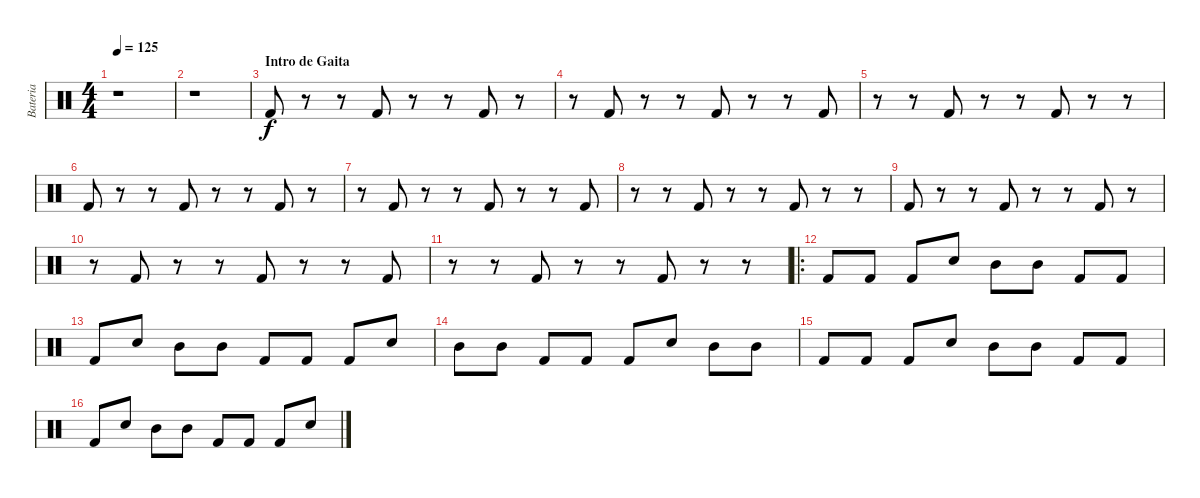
\track ("Bateria" "Bateria") {instrument percussion}
\staff {score}
\articulation defaults
\ts (4 4)
\tempo 125
\clef neutral
\ks c
r.1{dy f} |
r.1 |
\section ("" "Intro de Gaita")
"Kick (hit) 2".8 r.8 r.8 "Kick (hit) 2".8 r.8 r.8 "Kick (hit) 2".8 r.8 |
r.8 "Kick (hit) 2".8 r.8 r.8 "Kick (hit) 2".8 r.8 r.8 "Kick (hit) 2".8 |
r.8 r.8 "Kick (hit) 2".8 r.8 r.8 "Kick (hit) 2".8 r.8 r.8 |
"Kick (hit) 2".8 r.8 r.8 "Kick (hit) 2".8 r.8 r.8 "Kick (hit) 2".8 r.8 |
r.8 "Kick (hit) 2".8 r.8 r.8 "Kick (hit) 2".8 r.8 r.8 "Kick (hit) 2".8 |
r.8 r.8 "Kick (hit) 2".8 r.8 r.8 "Kick (hit) 2".8 r.8 r.8 |
"Kick (hit) 2".8 r.8 r.8 "Kick (hit) 2".8 r.8 r.8 "Kick (hit) 2".8 r.8 |
r.8 "Kick (hit) 2".8 r.8 r.8 "Kick (hit) 2".8 r.8 r.8 "Kick (hit) 2".8 |
r.8 r.8 "Kick (hit) 2".8 r.8 r.8 "Kick (hit) 2".8 r.8 r.8 |
\ro "Kick (hit) 2".8 "Kick (hit) 2".8 "Kick (hit) 2".8 "Snare (hit) 2".8 "Mid Tom (hit)".8 "Mid Tom (hit)".8 "Kick (hit) 2".8 "Kick (hit) 2".8
|
"Kick (hit) 2".8 "Snare (hit) 2".8 "Mid Tom (hit)".8 "Mid Tom (hit)".8 "Kick (hit) 2".8 "Kick (hit) 2".8 "Kick (hit) 2".8 "Snare (hit) 2".8 |
"Mid Tom (hit)".8 "Mid Tom (hit)".8 "Kick (hit) 2".8 "Kick (hit) 2".8 "Kick (hit) 2".8 "Snare (hit) 2".8 "Mid Tom (hit)".8 "Mid Tom (hit)".8 |
"Kick (hit) 2".8 "Kick (hit) 2".8 "Kick (hit) 2".8 "Snare (hit) 2".8 "Mid Tom (hit)".8 "Mid Tom (hit)".8 "Kick (hit) 2".8 "Kick (hit) 2".8 |
"Kick (hit) 2".8 "Snare (hit) 2".8 "Mid Tom (hit)".8 "Mid Tom (hit)".8 "Kick (hit) 2".8 "Kick (hit) 2".8 "Kick (hit) 2".8 "Snare (hit) 2".8
